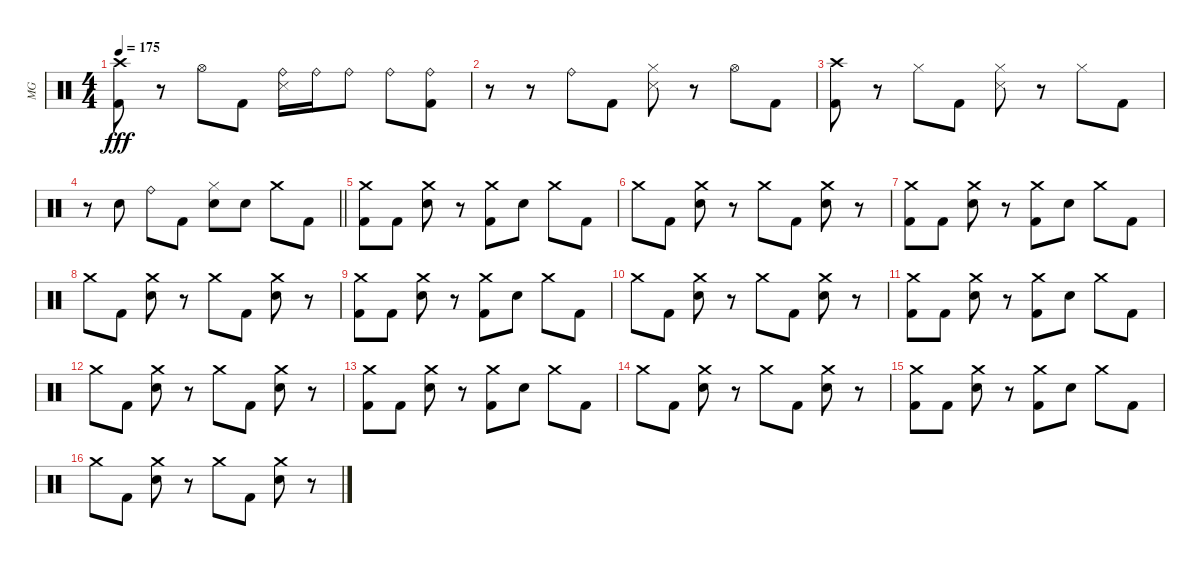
\track ("MG" "MG") {instrument percussion}
\staff {score}
\articulation defaults
\ts (4 4)
\tempo 175
\clef neutral
\ks c
("Crash high (hit)" "Kick (hit) 2").8{dy fff} r.8 "Hi-Hat (open)".8 "Kick (hit) 2".8 ("Ride (bell)" "Snare (side stick) 3").16 "Ride (bell)".16 "Ride (bell)".8 "Ride (bell)".8 ("Ride (bell)" "Kick (hit) 2").8 |
r.8 r.8 "Ride (bell)".8 "Kick (hit) 2".8 ("Hi-Hat (closed)" "Snare (side stick) 3").8 r.8 "Hi-Hat (open)".8 "Kick (hit) 2".8 |
("Crash high (hit)" "Kick (hit) 2").8 r.8 "Hi-Hat (closed)".8 "Kick (hit) 2".8 ("Hi-Hat (closed)" "Snare (side stick) 3").8 r.8 "Hi-Hat (closed)".8 "Kick (hit) 2".8 |
\barLineRight lightlight
r.8 "Electric Snare (hit)".8 "Ride (bell)".8 "Kick (hit) 2".8 ("Hi-Hat (closed)" "Electric Snare (hit)").8 "Electric Snare (hit)".8 "Crash medium (hit)".8 "Kick (hit) 2".8 |
\section ("" "")
("Crash medium (hit)" "Kick (hit) 2").8 "Kick (hit) 2".8 ("Crash medium (hit)" "Electric Snare (hit)").8 r.8 ("Crash medium (hit)" "Kick (hit) 2").8 "Electric Snare (hit)".8 "Crash medium (hit)".8 "Kick (hit) 2".8 |
"Crash medium (hit)".8 "Kick (hit) 2".8 ("Crash medium (hit)" "Electric Snare (hit)").8 r.8 "Crash medium (hit)".8 "Kick (hit) 2".8 ("Crash medium (hit)" "Electric Snare (hit)").8 r.8 |
("Crash medium (hit)" "Kick (hit) 2").8 "Kick (hit) 2".8 ("Crash medium (hit)" "Electric Snare (hit)").8 r.8 ("Crash medium (hit)" "Kick (hit) 2").8 "Electric Snare (hit)".8 "Crash medium (hit)".8 "Kick (hit) 2".8 |
"Crash medium (hit)".8 "Kick (hit) 2".8 ("Crash medium (hit)" "Electric Snare (hit)").8 r.8 "Crash medium (hit)".8 "Kick (hit) 2".8 ("Crash medium (hit)" "Electric Snare (hit)").8 r.8 |
("Crash medium (hit)" "Kick (hit) 2").8 "Kick (hit) 2".8 ("Crash medium (hit)" "Electric Snare (hit)").8 r.8 ("Crash medium (hit)" "Kick (hit) 2").8 "Electric Snare (hit)".8 "Crash medium (hit)".8 "Kick (hit) 2".8 |
"Crash medium (hit)".8 "Kick (hit) 2".8 ("Crash medium (hit)" "Electric Snare (hit)").8 r.8 "Crash medium (hit)".8 "Kick (hit) 2".8 ("Crash medium (hit)" "Electric Snare (hit)").8 r.8 |
("Crash medium (hit)" "Kick (hit) 2").8 "Kick (hit) 2".8 ("Crash medium (hit)" "Electric Snare (hit)").8 r.8 ("Crash medium (hit)" "Kick (hit) 2").8 "Electric Snare (hit)".8 "Crash medium (hit)".8 "Kick (hit) 2".8 |
"Crash medium (hit)".8 "Kick (hit) 2".8 ("Crash medium (hit)" "Electric Snare (hit)").8 r.8 "Crash medium (hit)".8 "Kick (hit) 2".8 ("Crash medium (hit)" "Electric Snare (hit)").8 r.8 |
("Crash medium (hit)" "Kick (hit) 2").8 "Kick (hit) 2".8 ("Crash medium (hit)" "Electric Snare (hit)").8 r.8 ("Crash medium (hit)" "Kick (hit) 2").8 "Electric Snare (hit)".8 "Crash medium (hit)".8 "Kick (hit) 2".8 |
"Crash medium (hit)".8 "Kick (hit) 2".8 ("Crash medium (hit)" "Electric Snare (hit)").8 r.8 "Crash medium (hit)".8 "Kick (hit) 2".8 ("Crash medium (hit)" "Electric Snare (hit)").8 r.8 |
("Crash medium (hit)" "Kick (hit) 2").8 "Kick (hit) 2".8 ("Crash medium (hit)" "Electric Snare (hit)").8 r.8 ("Crash medium (hit)" "Kick (hit) 2").8 "Electric Snare (hit)".8 "Crash medium (hit)".8 "Kick (hit) 2".8 |
"Crash medium (hit)".8 "Kick (hit) 2".8 ("Crash medium (hit)" "Electric Snare (hit)").8 r.8 "Crash medium (hit)".8 "Kick (hit) 2".8 ("Crash medium (hit)" "Electric Snare (hit)").8 r.8
